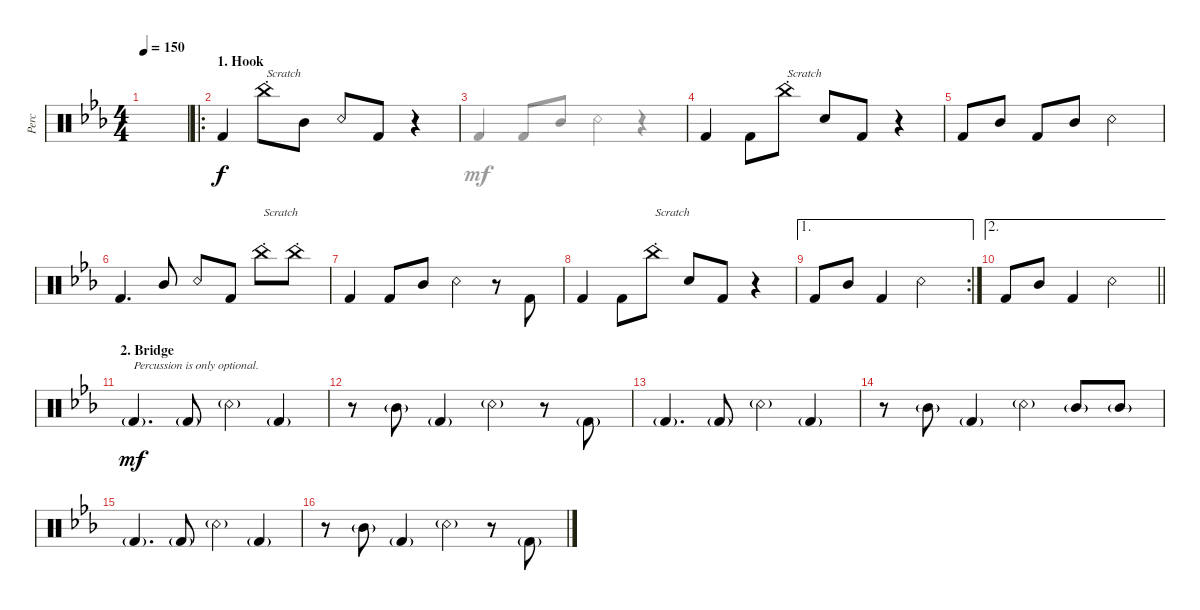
\defaultSystemsLayout 4
\bracketExtendMode groupsimilarinstruments
\otherSystemsTrackNameOrientation horizontal
\track ("Percussion" "Perc") {instrument percussion}
\staff {score}
\articulation defaults
\voice
\ts (4 4)
\ac
\scale
0.515621
\tempo 150
\accidentals auto
\clef neutral
\ottava regular
\simile none
\ks cminor
|
\ro
\section ("" "1. Hook")
\scale
1.48438 "Kick (hit) 2"{acc forcenatural}.4{beam Up} "China (hit)"{st acc forcenatural}.8{txt "Scratch" beam Down} "Mid Tom (hit)"{acc forcenatural}.8{beam Down} "Snare (rim shot)"{acc forcenatural}.8{beam Up} "Kick (hit) 2"{acc forcenatural}.8{beam Up} r.4{beam Up} |
|
"Kick (hit) 2"{acc forcenatural}.4{beam Up} "Kick (hit) 2"{acc forcenatural}.8{beam Down} "China (hit)"{st acc forcenatural}.8{txt "Scratch" beam Down} "Snare (hit) 2"{acc forcenatural}.8{beam Up} "Kick (hit) 2"{acc forcenatural}.8{beam Up} r.4{beam Up} |
"Kick (hit) 2"{acc forcenatural}.8{beam Up} "Mid Tom (hit)"{acc forcenatural}.8{beam Up} "Kick (hit) 2"{acc forcenatural}.8{beam Up} "Mid Tom (hit)"{acc forcenatural}.8{beam Up} "Snare (rim shot)"{acc forcenatural}.2{beam Down} |
"Kick (hit) 2"{acc forcenatural}.4{d beam Up} "Mid Tom (hit)"{acc forcenatural}.8{beam Up} "Snare (rim shot)"{acc forcenatural}.8{beam Up} "Kick (hit) 2"{acc forcenatural}.8{beam Up} "China (hit)"{st acc forcenatural}.8{txt "Scratch" beam Down} "China (hit)"{st acc forcenatural}.8{beam Down} |
"Kick (hit) 2"{acc forcenatural}.4{beam Up} "Kick (hit) 2"{acc forcenatural}.8{beam Up} "Mid Tom (hit)"{acc forcenatural}.8{beam Up} "Snare (rim shot)"{acc forcenatural}.4{beam Down} r.8{beam Down} "Kick (hit) 2"{acc forcenatural}.8{beam Up} |
"Kick (hit) 2"{acc forcenatural}.4{beam Up} "Kick (hit) 2"{acc forcenatural}.8{beam Down} "China (hit)"{st acc forcenatural}.8{txt "Scratch" beam Down} "Snare (hit) 2"{acc forcenatural}.8{beam Up} "Kick (hit) 2"{acc forcenatural}.8{beam Up} r.4{beam Up} |
\ae 1
\rc 2 "Kick (hit) 2"{acc forcenatural}.8{beam Up} "Mid Tom (hit)"{acc forcenatural}.8{beam Up} "Kick (hit) 2"{acc forcenatural}.4{beam Up} "Snare (rim shot)"{acc forcenatural}.2{beam Down}
|
\ae 2
\barLineRight lightlight "Kick (hit) 2"{acc forcenatural}.8{beam Up} "Mid Tom (hit)"{acc forcenatural}.8{beam Up} "Kick (hit) 2"{acc forcenatural}.4{beam Up} "Snare (rim shot)"{acc forcenatural}.2{beam Down}
|
\section ("" "2. Bridge")
"Kick (hit) 2"{g acc forcenatural}.4{d txt "Percussion is only optional." dy mf beam Up} "Kick (hit) 2"{g acc forcenatural}.8{beam Up} "Snare (rim shot)"{g acc forcenatural}.4{beam Down} "Kick (hit) 2"{g acc forcenatural}.4{beam Up} |
r.8{beam Down} "Mid Tom (hit)"{g acc forcenatural}.8{beam Down} "Kick (hit) 2"{g acc forcenatural}.4{beam Up} "Snare (rim shot)"{g acc forcenatural}.4{beam Down} r.8{beam Down} "Kick (hit) 2"{g acc forcenatural}.8{beam Up} |
"Kick (hit) 2"{g acc forcenatural}.4{d beam Up} "Kick (hit) 2"{g acc forcenatural}.8{beam Up} "Snare (rim shot)"{g acc forcenatural}.4{beam Down} "Kick (hit) 2"{g acc forcenatural}.4{beam Up} |
r.8{beam Down} "Mid Tom (hit)"{g acc forcenatural}.8{beam Down} "Kick (hit) 2"{g acc forcenatural}.4{beam Up} "Snare (rim shot)"{g acc forcenatural}.4{beam Down} "Mid Tom (hit)"{g acc forcenatural}.8{beam Up} "Mid Tom (hit)"{g acc forcenatural}.8{beam Up} |
"Kick (hit) 2"{g acc forcenatural}.4{d beam Up} "Kick (hit) 2"{g acc forcenatural}.8{beam Up} "Snare (rim shot)"{g acc forcenatural}.4{beam Down} "Kick (hit) 2"{g acc forcenatural}.4{beam Up} |
r.8{beam Down} "Mid Tom (hit)"{g acc forcenatural}.8{beam Down} "Kick (hit) 2"{g acc forcenatural}.4{beam Up} "Snare (rim shot)"{g acc forcenatural}.4{beam Down} r.8{beam Down} "Kick (hit) 2"{g acc forcenatural}.8{beam Up}
\voice
\clef neutral
\ottava regular
\simile none
\ks cminor
|
|
"Kick (hit) 2"{acc forcenatural}.4{beam Up} "Kick (hit) 2"{acc forcenatural}.8{beam Up} "Mid Tom (hit)"{acc forcenatural}.8{beam Up} "Snare (rim shot)"{acc forcenatural}.4{beam Down} r.4{beam Down} |
|
|
|
|
|
|
\barLineRight lightlight
|
|
|
|
|
|
